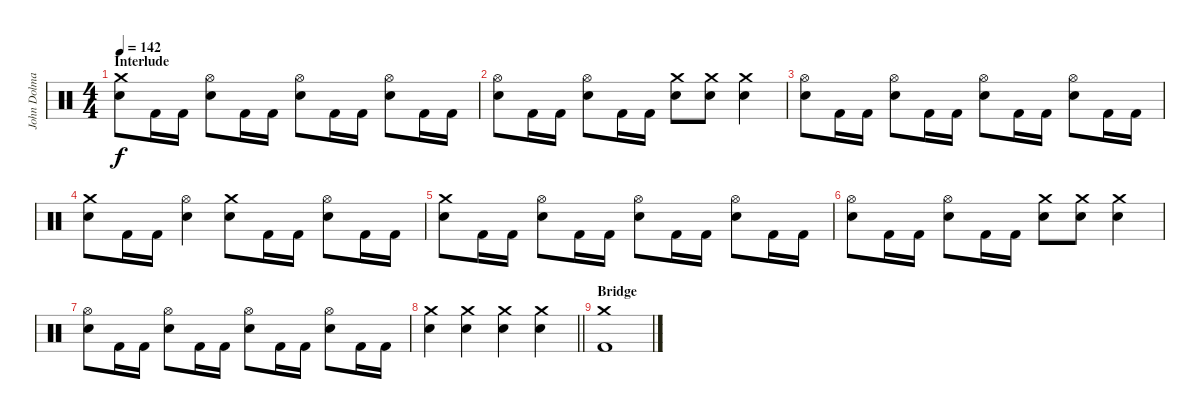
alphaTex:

\track ("John Dolmayan" "John Dolma") {instrument percussion}
\staff {score}
\articulation defaults
\ts (4 4)
\section ("" "Interlude")
\tempo 142
\clef neutral
\ks c
("Crash medium (hit)" "Electric Snare (hit)").8{dy f} "Kick (hit) 2".16 "Kick (hit) 2".16 ("Hi-Hat (open)" "Electric Snare (hit)").8 "Kick (hit) 2".16 "Kick (hit) 2".16 ("Hi-Hat (open)" "Electric Snare (hit)").8 "Kick (hit) 2".16 "Kick (hit) 2".16 ("Hi-Hat (open)" "Electric Snare (hit)").8 "Kick (hit) 2".16 "Kick (hit) 2".16 |
("Hi-Hat (open)" "Electric Snare (hit)").8 "Kick (hit) 2".16 "Kick (hit) 2".16 ("Hi-Hat (open)" "Electric Snare (hit)").8 "Kick (hit) 2".16 "Kick (hit) 2".16 ("Crash medium (hit)" "Electric Snare (hit)").8 ("Crash medium (hit)" "Electric Snare (hit)").8 ("Crash medium (hit)" "Electric Snare (hit)").4 |
("Hi-Hat (open)" "Electric Snare (hit)").8 "Kick (hit) 2".16 "Kick (hit) 2".16 ("Hi-Hat (open)" "Electric Snare (hit)").8 "Kick (hit) 2".16 "Kick (hit) 2".16 ("Hi-Hat (open)" "Electric Snare (hit)").8 "Kick (hit) 2".16 "Kick (hit) 2".16 ("Hi-Hat (open)" "Electric Snare (hit)").8 "Kick (hit) 2".16 "Kick (hit) 2".16 |
("Crash medium (hit)" "Electric Snare (hit)").8 "Kick (hit) 2".16 "Kick (hit) 2".16 ("Hi-Hat (open)" "Electric Snare (hit)").4 ("Crash medium (hit)" "Electric Snare (hit)").8 "Kick (hit) 2".16 "Kick (hit) 2".16 ("Hi-Hat (open)" "Electric Snare (hit)").8 "Kick (hit) 2".16 "Kick (hit) 2".16 |
("Crash medium (hit)" "Electric Snare (hit)").8 "Kick (hit) 2".16 "Kick (hit) 2".16 ("Hi-Hat (open)" "Electric Snare (hit)").8 "Kick (hit) 2".16 "Kick (hit) 2".16 ("Hi-Hat (open)" "Electric Snare (hit)").8 "Kick (hit) 2".16 "Kick (hit) 2".16 ("Hi-Hat (open)" "Electric Snare (hit)").8 "Kick (hit) 2".16 "Kick (hit) 2".16 |
("Hi-Hat (open)" "Electric Snare (hit)").8 "Kick (hit) 2".16 "Kick (hit) 2".16 ("Hi-Hat (open)" "Electric Snare (hit)").8 "Kick (hit) 2".16 "Kick (hit) 2".16 ("Crash medium (hit)" "Electric Snare (hit)").8 ("Crash medium (hit)" "Electric Snare (hit)").8 ("Crash medium (hit)" "Electric Snare (hit)").4 |
("Hi-Hat (open)" "Electric Snare (hit)").8 "Kick (hit) 2".16 "Kick (hit) 2".16 ("Hi-Hat (open)" "Electric Snare (hit)").8 "Kick (hit) 2".16 "Kick (hit) 2".16 ("Hi-Hat (open)" "Electric Snare (hit)").8 "Kick (hit) 2".16 "Kick (hit) 2".16 ("Hi-Hat (open)" "Electric Snare (hit)").8 "Kick (hit) 2".16 "Kick (hit) 2".16 |
\barLineRight lightlight
("Crash medium (hit)" "Electric Snare (hit)").4 ("Crash medium (hit)" "Electric Snare (hit)").4 ("Crash medium (hit)" "Electric Snare (hit)").4 ("Crash medium (hit)" "Electric Snare (hit)").4 |
\section ("" "Bridge")
("Crash medium (hit)" "Kick (hit) 2").1
